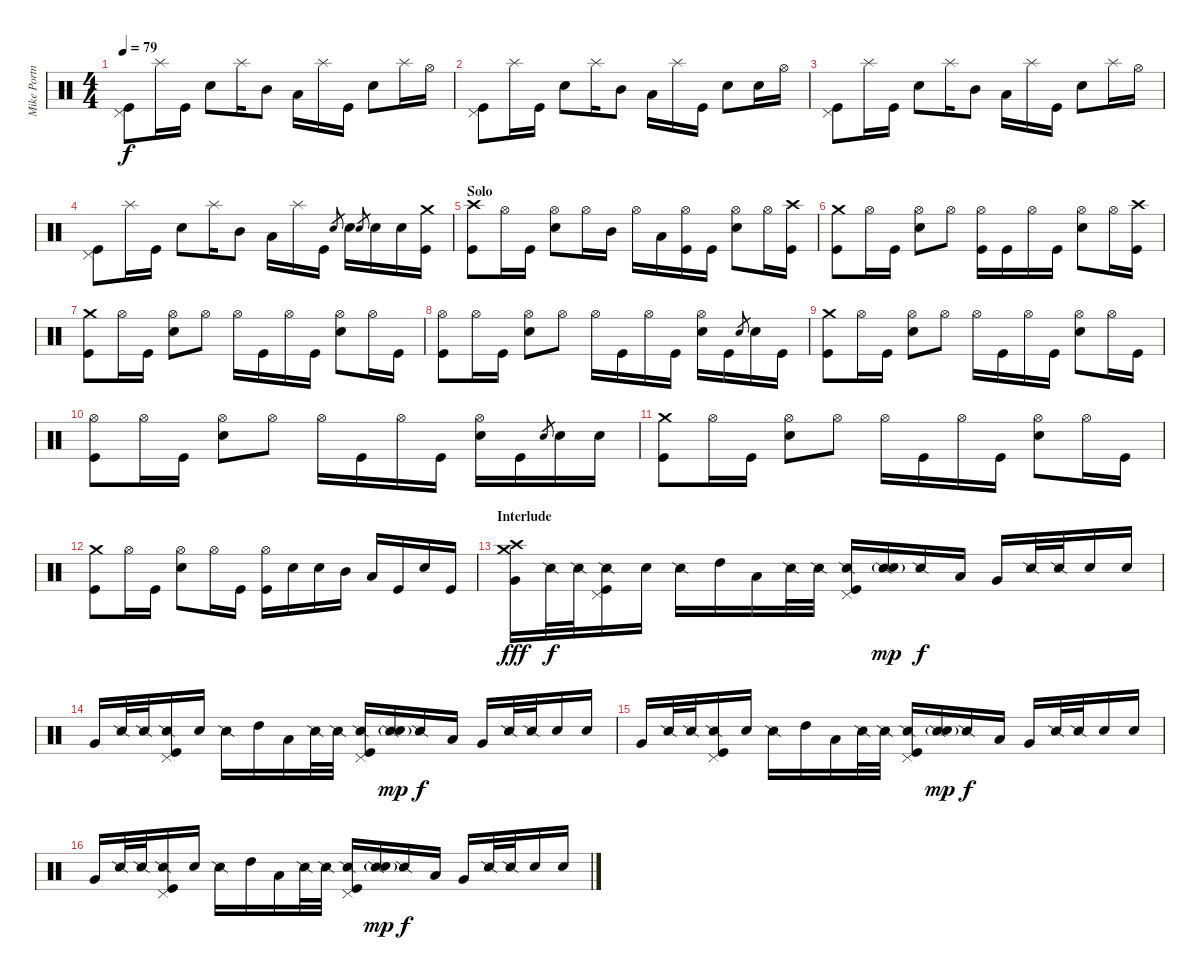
\track ("Mike Portnoy" "Mike Portn") {instrument percussion}
\staff {score}
\articulation defaults
\ts (4 4)
\tempo 79
\clef neutral
\ks c
("Pedal Hi-Hat (hit)" "Kick (hit)").8{dy f} "Splash (hit)".16 "Kick (hit)".16 "Electric Snare (hit)".8 "Splash (hit)".16 "Mid Tom (hit)".8 "Low Tom (hit)".16 "Splash (hit)".16 "Kick (hit)".16 "Electric Snare (hit)".8 "Splash (hit)".16 "Hi-Hat (open)".16 |
("Pedal Hi-Hat (hit)" "Kick (hit)").8 "Splash (hit)".16 "Kick (hit)".16 "Electric Snare (hit)".8 "Splash (hit)".16 "Mid Tom (hit)".8 "Low Tom (hit)".16 "Splash (hit)".16 "Kick (hit)".16 "Electric Snare (hit)".8 "Electric Snare (hit)".16 "Hi-Hat (open)".16 |
("Pedal Hi-Hat (hit)" "Kick (hit)").8 "Splash (hit)".16 "Kick (hit)".16 "Electric Snare (hit)".8 "Splash (hit)".16 "Mid Tom (hit)".8 "Low Tom (hit)".16 "Splash (hit)".16 "Kick (hit)".16 "Electric Snare (hit)".8 "Splash (hit)".16 "Hi-Hat (open)".16 |
("Pedal Hi-Hat (hit)" "Kick (hit)").8 "Splash (hit)".16 "Kick (hit)".16 "Electric Snare (hit)".8 "Splash (hit)".16 "Mid Tom (hit)".8 "Low Tom (hit)".16 "Splash (hit)".16 "Kick (hit)".16 "Electric Snare (hit)".8{gr} "Electric Snare (hit)".16 "Electric Snare (hit)".8{gr} "Electric Snare (hit)".16 "Electric Snare (hit)".16 ("Crash medium (hit)" "Kick (hit)").16 |
\section ("" "Solo")
("Crash high (hit)" "Kick (hit)").8 "Hi-Hat (open)".16 "Kick (hit)".16 ("Hi-Hat (open)" "Electric Snare (hit)").8 "Hi-Hat (open)".16 "Mid Tom (hit)".16 "Hi-Hat (open)".16 "Low Tom (hit)".16 ("Hi-Hat (open)" "Kick (hit)").16 "Kick (hit)".16 ("Hi-Hat (open)" "Electric Snare (hit)").8 "Hi-Hat (open)".16 ("Crash high (hit)" "Kick (hit)").16 |
("Crash medium (hit)" "Kick (hit)").8 "Hi-Hat (open)".16 "Kick (hit)".16 ("Hi-Hat (open)" "Electric Snare (hit)").8 "Hi-Hat (open)".8 ("Hi-Hat (open)" "Kick (hit)").16 "Kick (hit)".16 "Hi-Hat (open)".16 "Kick (hit)".16 ("Hi-Hat (open)" "Electric Snare (hit)").8 "Hi-Hat (open)".16 ("Crash high (hit)" "Kick (hit)").16 |
("Crash medium (hit)" "Kick (hit)").8 "Hi-Hat (open)".16 "Kick (hit)".16 ("Hi-Hat (open)" "Electric Snare (hit)").8 "Hi-Hat (open)".8 "Hi-Hat (open)".16 "Kick (hit)".16 "Hi-Hat (open)".16 "Kick (hit)".16 ("Hi-Hat (open)" "Electric Snare (hit)").8 "Hi-Hat (open)".16 "Kick (hit)".16 |
("Hi-Hat (open)" "Kick (hit)").8 "Hi-Hat (open)".16 "Kick (hit)".16 ("Hi-Hat (open)" "Electric Snare (hit)").8 "Hi-Hat (open)".8 "Hi-Hat (open)".16 "Kick (hit)".16 "Hi-Hat (open)".16 "Kick (hit)".16 ("Hi-Hat (open)" "Electric Snare (hit)").16 "Kick (hit)".16 "Electric Snare (hit)".8{gr} "Electric Snare (hit)".16 "Kick (hit)".16 |
("Crash medium (hit)" "Kick (hit)").8 "Hi-Hat (open)".16 "Kick (hit)".16 ("Hi-Hat (open)" "Electric Snare (hit)").8 "Hi-Hat (open)".8 "Hi-Hat (open)".16 "Kick (hit)".16 "Hi-Hat (open)".16 "Kick (hit)".16 ("Hi-Hat (open)" "Electric Snare (hit)").8 "Hi-Hat (open)".16 "Kick (hit)".16 |
("Hi-Hat (open)" "Kick (hit)").8 "Hi-Hat (open)".16 "Kick (hit)".16 ("Hi-Hat (open)" "Electric Snare (hit)").8 "Hi-Hat (open)".8 "Hi-Hat (open)".16 "Kick (hit)".16 "Hi-Hat (open)".16 "Kick (hit)".16 ("Hi-Hat (open)" "Electric Snare (hit)").16 "Kick (hit)".16 "Electric Snare (hit)".8{gr} "Electric Snare (hit)".16 "Electric Snare (hit)".16 |
("Crash medium (hit)" "Kick (hit)").8 "Hi-Hat (open)".16 "Kick (hit)".16 ("Hi-Hat (open)" "Electric Snare (hit)").8 "Hi-Hat (open)".8 "Hi-Hat (open)".16 "Kick (hit)".16 "Hi-Hat (open)".16 "Kick (hit)".16 ("Hi-Hat (open)" "Electric Snare (hit)").8 "Hi-Hat (open)".16 "Kick (hit)".16 |
("Crash medium (hit)" "Kick (hit)").8 "Hi-Hat (open)".16 "Kick (hit)".16 ("Hi-Hat (open)" "Electric Snare (hit)").8 "Hi-Hat (open)".16 "Kick (hit)".16 ("Hi-Hat (open)" "Kick (hit)").16 "Electric Snare (hit)".16 "Electric Snare (hit)".16 "Mid Tom (hit)".16 "Low Tom (hit)".16 "Kick (hit)".16 "Electric Snare (hit)".16 "Kick (hit)".16 |
\section ("" "Interlude")
("Crash high (hit)" "Crash medium (hit)" "Very Low Tom (hit)").16{dy fff volume 11} "Snare (side stick) 2".32{dy f} "Snare (side stick) 2".32 ("Snare (side stick) 2" "Pedal Hi-Hat (hit)" "Kick (hit)").16 "Electric Snare (hit)".16 "Snare (side stick) 2".16 "High Tom (hit)".16 "Low Tom (hit)".16 "Snare (side stick) 2".32 "Snare (side stick) 2".32 ("Snare (side stick) 2" "Pedal Hi-Hat (hit)" "Kick (hit)").16 ("Snare (side stick) 2" "Electric Snare (hit)"{g}).16{dy mp} "Snare (side stick) 2".16{dy f} "Low Tom (hit)".16 "Very Low Tom (hit)".16 "Snare (side stick) 2".32 "Snare (side stick) 2".32 "Electric Snare (hit)".16 "Electric Snare (hit)".16 |
"Very Low Tom (hit)".16 "Snare (side stick) 2".32 "Snare (side stick) 2".32 ("Snare (side stick) 2" "Pedal Hi-Hat (hit)" "Kick (hit)").16 "Electric Snare (hit)".16 "Snare (side stick) 2".16 "High Tom (hit)".16 "Low Tom (hit)".16 "Snare (side stick) 2".32 "Snare (side stick) 2".32 ("Snare (side stick) 2" "Pedal Hi-Hat (hit)" "Kick (hit)").16 ("Snare (side stick) 2" "Electric Snare (hit)"{g}).16{dy mp} "Snare (side stick) 2".16{dy f} "Low Tom (hit)".16 "Very Low Tom (hit)".16 "Snare (side stick) 2".32 "Snare (side stick) 2".32 "Electric Snare (hit)".16 "Electric Snare (hit)".16 |
"Very Low Tom (hit)".16 "Snare (side stick) 2".32 "Snare (side stick) 2".32 ("Snare (side stick) 2" "Pedal Hi-Hat (hit)" "Kick (hit)").16 "Electric Snare (hit)".16 "Snare (side stick) 2".16 "High Tom (hit)".16 "Low Tom (hit)".16 "Snare (side stick) 2".32 "Snare (side stick) 2".32 ("Snare (side stick) 2" "Pedal Hi-Hat (hit)" "Kick (hit)").16 ("Snare (side stick) 2" "Electric Snare (hit)"{g}).16{dy mp} "Snare (side stick) 2".16{dy f} "Low Tom (hit)".16 "Very Low Tom (hit)".16 "Snare (side stick) 2".32 "Snare (side stick) 2".32 "Electric Snare (hit)".16 "Electric Snare (hit)".16 |
"Very Low Tom (hit)".16 "Snare (side stick) 2".32 "Snare (side stick) 2".32 ("Snare (side stick) 2" "Pedal Hi-Hat (hit)" "Kick (hit)").16 "Electric Snare (hit)".16 "Snare (side stick) 2".16 "High Tom (hit)".16 "Low Tom (hit)".16 "Snare (side stick) 2".32 "Snare (side stick) 2".32 ("Snare (side stick) 2" "Pedal Hi-Hat (hit)" "Kick (hit)").16 ("Snare (side stick) 2" "Electric Snare (hit)"{g}).16{dy mp} "Snare (side stick) 2".16{dy f} "Low Tom (hit)".16 "Very Low Tom (hit)".16 "Snare (side stick) 2".32 "Snare (side stick) 2".32 "Electric Snare (hit)".16 "Electric Snare (hit)".16
